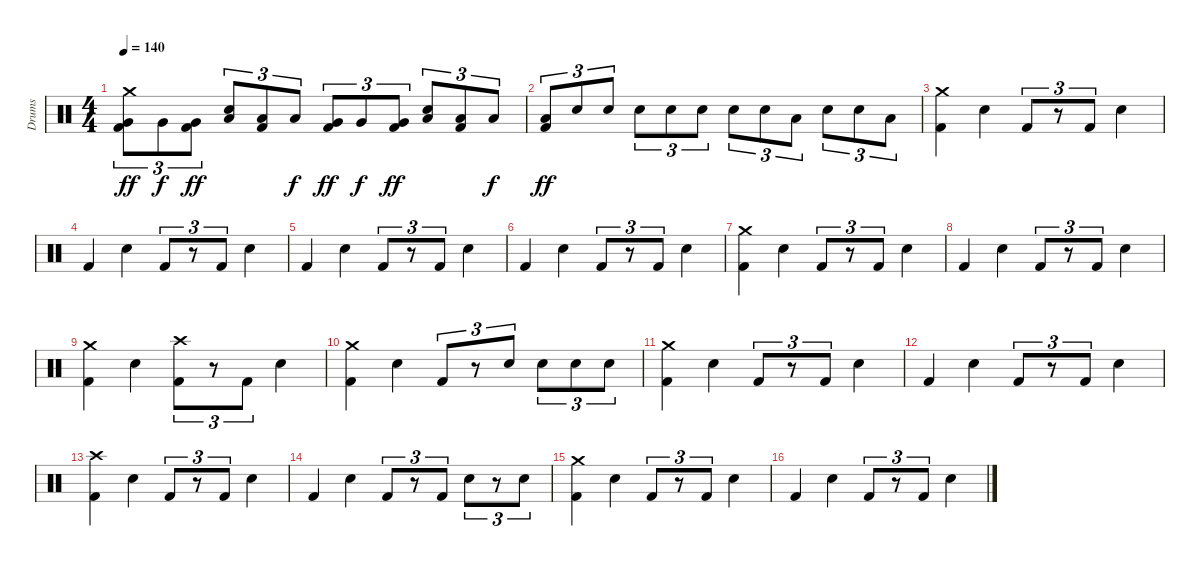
\track ("Drums" "Drums") {instrument percussion}
\staff {score}
\articulation defaults
\ts (4 4)
\tempo 140
\clef neutral
\ks c
("Kick (hit) 2" "Very Low Tom (hit)" "Crash medium (hit)").8{tu (3 2) dy ff} "Very Low Tom (hit)".8{tu (3 2) dy f} ("Kick (hit) 2" "Very Low Tom (hit)").8{tu (3 2) dy ff} ("Snare (hit) 2" "Low Tom (hit)").8{tu (3 2)} ("Kick (hit) 2" "Low Floor Tom (hit)").8{tu (3 2)} "Low Floor Tom (hit)".8{tu (3 2) dy f} ("Kick (hit) 2" "Very Low Tom (hit)").8{tu (3 2) dy ff} "Very Low Tom (hit)".8{tu (3 2) dy f} ("Kick (hit) 2" "Very Low Tom (hit)").8{tu (3 2) dy ff} ("Snare (hit) 2" "Low Tom (hit)").8{tu (3 2)} ("Kick (hit) 2" "Low Floor Tom (hit)").8{tu (3 2)} "Low Floor Tom (hit)".8{tu (3 2) dy f} |
("Kick (hit) 2" "Low Floor Tom (hit)").8{tu (3 2) dy ff} "Snare (hit) 2".8{tu (3 2)} "Snare (hit) 2".8{tu (3 2)} "Snare (hit) 2".8{tu (3 2)} "Snare (hit) 2".8{tu (3 2)} "Snare (hit) 2".8{tu (3 2)} "Snare (hit) 2".8{tu (3 2)} "Snare (hit) 2".8{tu (3 2)} "Low Tom (hit)".8{tu (3 2)} "Snare (hit) 2".8{tu (3 2)} "Snare (hit) 2".8{tu (3 2)} "Low Floor Tom (hit)".8{tu (3 2)} |
("Kick (hit) 2" "Crash medium (hit)").4 "Snare (hit) 2".4 "Kick (hit) 2".8{tu (3 2)} r.8{tu (3 2)} "Kick (hit) 2".8{tu (3 2)} "Snare (hit) 2".4 |
"Kick (hit) 2".4 "Snare (hit) 2".4 "Kick (hit) 2".8{tu (3 2)} r.8{tu (3 2)} "Kick (hit) 2".8{tu (3 2)} "Snare (hit) 2".4 |
"Kick (hit) 2".4 "Snare (hit) 2".4 "Kick (hit) 2".8{tu (3 2)} r.8{tu (3 2)} "Kick (hit) 2".8{tu (3 2)} "Snare (hit) 2".4 |
"Kick (hit) 2".4 "Snare (hit) 2".4 "Kick (hit) 2".8{tu (3 2)} r.8{tu (3 2)} "Kick (hit) 2".8{tu (3 2)} "Snare (hit) 2".4 |
("Kick (hit) 2" "Crash medium (hit)").4 "Snare (hit) 2".4 "Kick (hit) 2".8{tu (3 2)} r.8{tu (3 2)} "Kick (hit) 2".8{tu (3 2)} "Snare (hit) 2".4 |
"Kick (hit) 2".4 "Snare (hit) 2".4 "Kick (hit) 2".8{tu (3 2)} r.8{tu (3 2)} "Kick (hit) 2".8{tu (3 2)} "Snare (hit) 2".4 |
("Kick (hit) 2" "Crash medium (hit)").4 "Snare (hit) 2".4 ("Kick (hit) 2" "Crash high (hit)").8{tu (3 2)} r.8{tu (3 2)} "Kick (hit) 2".8{tu (3 2)} "Snare (hit) 2".4 |
("Kick (hit) 2" "Crash medium (hit)").4 "Snare (hit) 2".4 "Kick (hit) 2".8{tu (3 2)} r.8{tu (3 2)} "Snare (hit) 2".8{tu (3 2)} "Snare (hit) 2".8{tu (3 2)} "Snare (hit) 2".8{tu (3 2)} "Snare (hit) 2".8{tu (3 2)} |
("Kick (hit) 2" "Crash medium (hit)").4 "Snare (hit) 2".4 "Kick (hit) 2".8{tu (3 2)} r.8{tu (3 2)} "Kick (hit) 2".8{tu (3 2)} "Snare (hit) 2".4 |
"Kick (hit) 2".4 "Snare (hit) 2".4 "Kick (hit) 2".8{tu (3 2)} r.8{tu (3 2)} "Kick (hit) 2".8{tu (3 2)} "Snare (hit) 2".4 |
("Kick (hit) 2" "Crash high (hit)").4 "Snare (hit) 2".4 "Kick (hit) 2".8{tu (3 2)} r.8{tu (3 2)} "Kick (hit) 2".8{tu (3 2)} "Snare (hit) 2".4 |
"Kick (hit) 2".4 "Snare (hit) 2".4 "Kick (hit) 2".8{tu (3 2)} r.8{tu (3 2)} "Kick (hit) 2".8{tu (3 2)} "Snare (hit) 2".8{tu (3 2)} r.8{tu (3 2)} "Snare (hit) 2".8{tu (3 2)} |
("Kick (hit) 2" "Crash medium (hit)").4 "Snare (hit) 2".4 "Kick (hit) 2".8{tu (3 2)} r.8{tu (3 2)} "Kick (hit) 2".8{tu (3 2)} "Snare (hit) 2".4 |
"Kick (hit) 2".4 "Snare (hit) 2".4 "Kick (hit) 2".8{tu (3 2)} r.8{tu (3 2)} "Kick (hit) 2".8{tu (3 2)} "Snare (hit) 2".4
